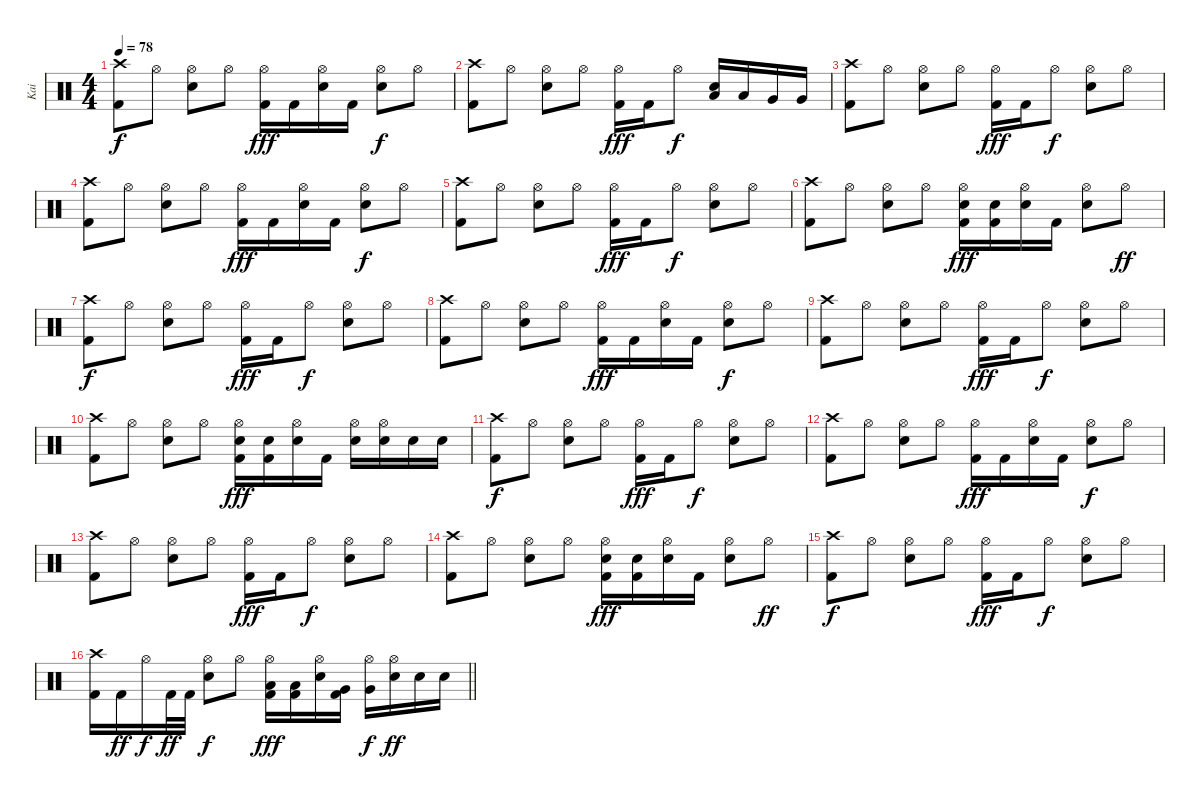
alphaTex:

\track ("Kai" "Kai") {instrument percussion}
\staff {score}
\articulation defaults
\ts (4 4)
\tempo 78
\clef neutral
\ks c
("Crash high (hit)" "Kick (hit) 2").8{dy f} "Hi-Hat (open)".8 ("Hi-Hat (open)" "Electric Snare (hit)").8 "Hi-Hat (open)".8 ("Hi-Hat (open)" "Kick (hit) 2").16{dy fff} "Kick (hit) 2".16 ("Hi-Hat (open)" "Electric Snare (hit)").16 "Kick (hit) 2".16 ("Hi-Hat (open)" "Electric Snare (hit)").8{dy f} "Hi-Hat (open)".8 |
("Crash high (hit)" "Kick (hit) 2").8 "Hi-Hat (open)".8 ("Hi-Hat (open)" "Electric Snare (hit)").8 "Hi-Hat (open)".8 ("Hi-Hat (open)" "Kick (hit) 2").16{dy fff} "Kick (hit) 2".16 "Hi-Hat (open)".8{dy f} ("Low Tom (hit)" "Electric Snare (hit)").16 "Low Tom (hit)".16 "Very Low Tom (hit)".16 "Very Low Tom (hit)".16 |
("Crash high (hit)" "Kick (hit) 2").8 "Hi-Hat (open)".8 ("Hi-Hat (open)" "Electric Snare (hit)").8 "Hi-Hat (open)".8 ("Hi-Hat (open)" "Kick (hit) 2").16{dy fff} "Kick (hit) 2".16 "Hi-Hat (open)".8{dy f} ("Hi-Hat (open)" "Electric Snare (hit)").8 "Hi-Hat (open)".8 |
("Crash high (hit)" "Kick (hit) 2").8 "Hi-Hat (open)".8 ("Hi-Hat (open)" "Electric Snare (hit)").8 "Hi-Hat (open)".8 ("Hi-Hat (open)" "Kick (hit) 2").16{dy fff} "Kick (hit) 2".16 ("Hi-Hat (open)" "Electric Snare (hit)").16 "Kick (hit) 2".16 ("Hi-Hat (open)" "Electric Snare (hit)").8{dy f} "Hi-Hat (open)".8 |
("Crash high (hit)" "Kick (hit) 2").8 "Hi-Hat (open)".8 ("Hi-Hat (open)" "Electric Snare (hit)").8 "Hi-Hat (open)".8 ("Hi-Hat (open)" "Kick (hit) 2").16{dy fff} "Kick (hit) 2".16 "Hi-Hat (open)".8{dy f} ("Hi-Hat (open)" "Electric Snare (hit)").8 "Hi-Hat (open)".8 |
("Crash high (hit)" "Kick (hit) 2").8 "Hi-Hat (open)".8 ("Hi-Hat (open)" "Electric Snare (hit)").8 "Hi-Hat (open)".8 ("Hi-Hat (open)" "Electric Snare (hit)" "Kick (hit) 2").16{dy fff} ("Electric Snare (hit)" "Kick (hit) 2").16 ("Hi-Hat (open)" "Electric Snare (hit)").16 "Kick (hit) 2".16 ("Hi-Hat (open)" "Electric Snare (hit)").8 "Hi-Hat (open)".8{dy ff} |
("Crash high (hit)" "Kick (hit) 2").8{dy f} "Hi-Hat (open)".8 ("Hi-Hat (open)" "Electric Snare (hit)").8 "Hi-Hat (open)".8 ("Hi-Hat (open)" "Kick (hit) 2").16{dy fff} "Kick (hit) 2".16 "Hi-Hat (open)".8{dy f} ("Hi-Hat (open)" "Electric Snare (hit)").8 "Hi-Hat (open)".8 |
("Crash high (hit)" "Kick (hit) 2").8 "Hi-Hat (open)".8 ("Hi-Hat (open)" "Electric Snare (hit)").8 "Hi-Hat (open)".8 ("Hi-Hat (open)" "Kick (hit) 2").16{dy fff} "Kick (hit) 2".16 ("Hi-Hat (open)" "Electric Snare (hit)").16 "Kick (hit) 2".16 ("Hi-Hat (open)" "Electric Snare (hit)").8{dy f} "Hi-Hat (open)".8 |
("Crash high (hit)" "Kick (hit) 2").8 "Hi-Hat (open)".8 ("Hi-Hat (open)" "Electric Snare (hit)").8 "Hi-Hat (open)".8 ("Hi-Hat (open)" "Kick (hit) 2").16{dy fff} "Kick (hit) 2".16 "Hi-Hat (open)".8{dy f} ("Hi-Hat (open)" "Electric Snare (hit)").8 "Hi-Hat (open)".8 |
("Crash high (hit)" "Kick (hit) 2").8 "Hi-Hat (open)".8 ("Hi-Hat (open)" "Electric Snare (hit)").8 "Hi-Hat (open)".8 ("Hi-Hat (open)" "Electric Snare (hit)" "Kick (hit) 2").16{dy fff} ("Electric Snare (hit)" "Kick (hit) 2").16 ("Hi-Hat (open)" "Electric Snare (hit)").16 "Kick (hit) 2".16 ("Hi-Hat (open)" "Electric Snare (hit)").16 ("Hi-Hat (open)" "Electric Snare (hit)").16 "Electric Snare (hit)".16 "Electric Snare (hit)".16 |
("Crash high (hit)" "Kick (hit) 2").8{dy f} "Hi-Hat (open)".8 ("Hi-Hat (open)" "Electric Snare (hit)").8 "Hi-Hat (open)".8 ("Hi-Hat (open)" "Kick (hit) 2").16{dy fff} "Kick (hit) 2".16 "Hi-Hat (open)".8{dy f} ("Hi-Hat (open)" "Electric Snare (hit)").8 "Hi-Hat (open)".8 |
("Crash high (hit)" "Kick (hit) 2").8 "Hi-Hat (open)".8 ("Hi-Hat (open)" "Electric Snare (hit)").8 "Hi-Hat (open)".8 ("Hi-Hat (open)" "Kick (hit) 2").16{dy fff} "Kick (hit) 2".16 ("Hi-Hat (open)" "Electric Snare (hit)").16 "Kick (hit) 2".16 ("Hi-Hat (open)" "Electric Snare (hit)").8{dy f} "Hi-Hat (open)".8 |
("Crash high (hit)" "Kick (hit) 2").8 "Hi-Hat (open)".8 ("Hi-Hat (open)" "Electric Snare (hit)").8 "Hi-Hat (open)".8 ("Hi-Hat (open)" "Kick (hit) 2").16{dy fff} "Kick (hit) 2".16 "Hi-Hat (open)".8{dy f} ("Hi-Hat (open)" "Electric Snare (hit)").8 "Hi-Hat (open)".8 |
("Crash high (hit)" "Kick (hit) 2").8 "Hi-Hat (open)".8 ("Hi-Hat (open)" "Electric Snare (hit)").8 "Hi-Hat (open)".8 ("Hi-Hat (open)" "Electric Snare (hit)" "Kick (hit) 2").16{dy fff} ("Electric Snare (hit)" "Kick (hit) 2").16 ("Hi-Hat (open)" "Electric Snare (hit)").16 "Kick (hit) 2".16 ("Hi-Hat (open)" "Electric Snare (hit)").8 "Hi-Hat (open)".8{dy ff} |
("Crash high (hit)" "Kick (hit) 2").8{dy f} "Hi-Hat (open)".8 ("Hi-Hat (open)" "Electric Snare (hit)").8 "Hi-Hat (open)".8 ("Hi-Hat (open)" "Kick (hit) 2").16{dy fff} "Kick (hit) 2".16 "Hi-Hat (open)".8{dy f} ("Hi-Hat (open)" "Electric Snare (hit)").8 "Hi-Hat (open)".8 |
\barLineRight lightlight
("Crash high (hit)" "Kick (hit) 2").16 "Kick (hit) 2".16{dy ff} "Hi-Hat (open)".16{dy f} "Kick (hit) 2".32{dy ff} "Kick (hit) 2".32 ("Hi-Hat (open)" "Electric Snare (hit)").8{dy f} "Hi-Hat (open)".8 ("Hi-Hat (open)" "Low Tom (hit)" "Kick (hit) 2").16{dy fff} ("Low Tom (hit)" "Kick (hit) 2").16 ("Hi-Hat (open)" "Electric Snare (hit)").16 ("Very Low Tom (hit)" "Kick (hit) 2").16 ("Hi-Hat (open)" "Very Low Tom (hit)").16{dy f} ("Hi-Hat (open)" "Electric Snare (hit)").16{dy ff} "Electric Snare (hit)".16 "Electric Snare (hit)".16
